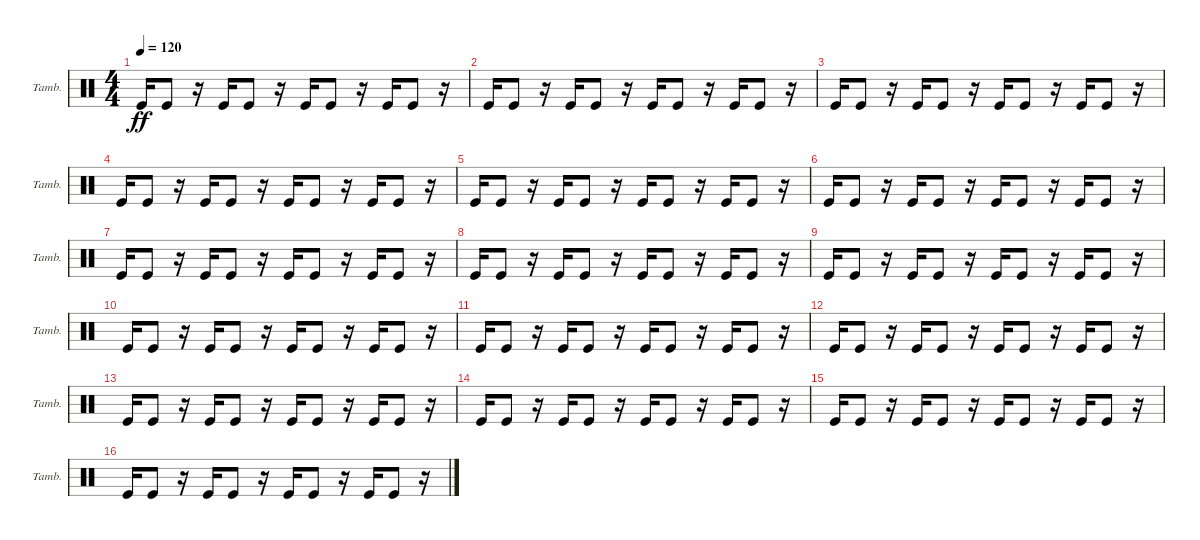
\bracketExtendMode groupsimilarinstruments
\singleTrackTrackNamePolicy allsystems
\multiTrackTrackNamePolicy allsystems
\firstSystemTrackNameOrientation horizontal
\otherSystemsTrackNameOrientation horizontal
\track ("Tambourine" "Tamb.") {instrument percussion}
\staff {score}
\articulation defaults
\ts (4 4)
\tempo 120
\clef neutral
\scale
0.333333
\ks c "Kick (hit)".16{dy ff} "Kick (hit)".8
r.16 "Kick (hit)".16 "Kick (hit)".8 r.16 "Kick (hit)".16 "Kick (hit)".8 r.16 "Kick (hit)".16 "Kick (hit)".8 r.16 |
\scale
0.333333 "Kick (hit)".16 "Kick (hit)".8 r.16 "Kick (hit)".16 "Kick (hit)".8 r.16 "Kick (hit)".16 "Kick (hit)".8 r.16 "Kick (hit)".16 "Kick (hit)".8 r.16 |
\scale
0.333333 "Kick (hit)".16 "Kick (hit)".8 r.16 "Kick (hit)".16 "Kick (hit)".8 r.16 "Kick (hit)".16 "Kick (hit)".8 r.16 "Kick (hit)".16 "Kick (hit)".8 r.16 |
\scale
0.333333 "Kick (hit)".16 "Kick (hit)".8 r.16 "Kick (hit)".16 "Kick (hit)".8 r.16 "Kick (hit)".16 "Kick (hit)".8 r.16 "Kick (hit)".16 "Kick (hit)".8 r.16 |
\scale
0.333333 "Kick (hit)".16 "Kick (hit)".8 r.16 "Kick (hit)".16 "Kick (hit)".8 r.16 "Kick (hit)".16 "Kick (hit)".8 r.16 "Kick (hit)".16 "Kick (hit)".8 r.16 |
\scale
0.333333 "Kick (hit)".16 "Kick (hit)".8 r.16 "Kick (hit)".16 "Kick (hit)".8 r.16 "Kick (hit)".16 "Kick (hit)".8 r.16 "Kick (hit)".16 "Kick (hit)".8 r.16 |
\scale
0.333333 "Kick (hit)".16 "Kick (hit)".8 r.16 "Kick (hit)".16 "Kick (hit)".8 r.16 "Kick (hit)".16 "Kick (hit)".8 r.16 "Kick (hit)".16 "Kick (hit)".8 r.16 |
\scale
0.333333 "Kick (hit)".16 "Kick (hit)".8 r.16 "Kick (hit)".16 "Kick (hit)".8 r.16 "Kick (hit)".16 "Kick (hit)".8 r.16 "Kick (hit)".16 "Kick (hit)".8 r.16 |
\scale
0.333333 "Kick (hit)".16 "Kick (hit)".8 r.16 "Kick (hit)".16 "Kick (hit)".8 r.16 "Kick (hit)".16 "Kick (hit)".8 r.16 "Kick (hit)".16 "Kick (hit)".8 r.16 |
\scale
0.333333 "Kick (hit)".16 "Kick (hit)".8 r.16 "Kick (hit)".16 "Kick (hit)".8 r.16 "Kick (hit)".16 "Kick (hit)".8 r.16 "Kick (hit)".16 "Kick (hit)".8 r.16 |
"Kick (hit)".16 "Kick (hit)".8 r.16 "Kick (hit)".16 "Kick (hit)".8 r.16 "Kick (hit)".16 "Kick (hit)".8 r.16 "Kick (hit)".16 "Kick (hit)".8 r.16 |
"Kick (hit)".16 "Kick (hit)".8 r.16 "Kick (hit)".16 "Kick (hit)".8 r.16 "Kick (hit)".16 "Kick (hit)".8 r.16 "Kick (hit)".16 "Kick (hit)".8 r.16 |
"Kick (hit)".16 "Kick (hit)".8 r.16 "Kick (hit)".16 "Kick (hit)".8 r.16 "Kick (hit)".16 "Kick (hit)".8 r.16 "Kick (hit)".16 "Kick (hit)".8 r.16 |
"Kick (hit)".16 "Kick (hit)".8 r.16 "Kick (hit)".16 "Kick (hit)".8 r.16 "Kick (hit)".16 "Kick (hit)".8 r.16 "Kick (hit)".16 "Kick (hit)".8 r.16 |
"Kick (hit)".16 "Kick (hit)".8 r.16 "Kick (hit)".16 "Kick (hit)".8 r.16 "Kick (hit)".16 "Kick (hit)".8 r.16 "Kick (hit)".16 "Kick (hit)".8 r.16 |
\scale
0.333333 "Kick (hit)".16 "Kick (hit)".8 r.16 "Kick (hit)".16 "Kick (hit)".8 r.16 "Kick (hit)".16 "Kick (hit)".8 r.16 "Kick (hit)".16 "Kick (hit)".8 r.16
